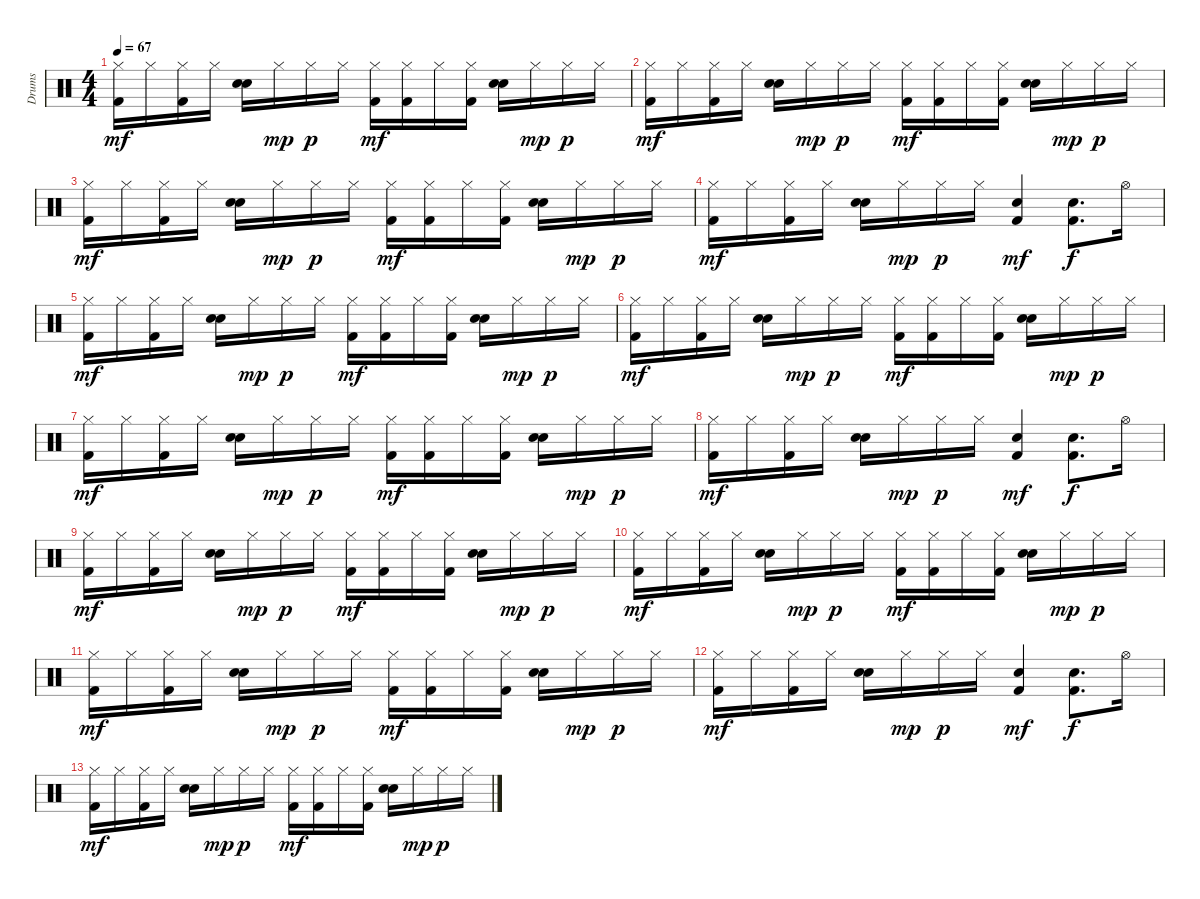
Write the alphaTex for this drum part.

\track ("Drums" "Drums") {instrument percussion}
\staff {score}
\articulation defaults
\ts (4 4)
\tempo 67
\clef neutral
\ks c
("Hi-Hat (closed)" "Kick (hit) 2").16{dy mf} "Hi-Hat (closed)".16 ("Hi-Hat (closed)" "Kick (hit) 2").16 "Hi-Hat (closed)".16 ("Hand Clap (hit)" "Snare (hit) 2").16 "Hi-Hat (closed)".16{dy mp} "Hi-Hat (closed)".16{dy p} "Hi-Hat (closed)".16 ("Hi-Hat (closed)" "Kick (hit) 2").16{dy mf} ("Hi-Hat (closed)" "Kick (hit) 2").16 "Hi-Hat (closed)".16 ("Hi-Hat (closed)" "Kick (hit) 2").16 ("Hand Clap (hit)" "Snare (hit) 2").16 "Hi-Hat (closed)".16{dy mp} "Hi-Hat (closed)".16{dy p} "Hi-Hat (closed)".16 |
("Hi-Hat (closed)" "Kick (hit) 2").16{dy mf} "Hi-Hat (closed)".16 ("Hi-Hat (closed)" "Kick (hit) 2").16 "Hi-Hat (closed)".16 ("Hand Clap (hit)" "Snare (hit) 2").16 "Hi-Hat (closed)".16{dy mp} "Hi-Hat (closed)".16{dy p} "Hi-Hat (closed)".16 ("Hi-Hat (closed)" "Kick (hit) 2").16{dy mf} ("Hi-Hat (closed)" "Kick (hit) 2").16 "Hi-Hat (closed)".16 ("Hi-Hat (closed)" "Kick (hit) 2").16 ("Hand Clap (hit)" "Snare (hit) 2").16 "Hi-Hat (closed)".16{dy mp} "Hi-Hat (closed)".16{dy p} "Hi-Hat (closed)".16 |
("Hi-Hat (closed)" "Kick (hit) 2").16{dy mf} "Hi-Hat (closed)".16 ("Hi-Hat (closed)" "Kick (hit) 2").16 "Hi-Hat (closed)".16 ("Hand Clap (hit)" "Snare (hit) 2").16 "Hi-Hat (closed)".16{dy mp} "Hi-Hat (closed)".16{dy p} "Hi-Hat (closed)".16 ("Hi-Hat (closed)" "Kick (hit) 2").16{dy mf} ("Hi-Hat (closed)" "Kick (hit) 2").16 "Hi-Hat (closed)".16 ("Hi-Hat (closed)" "Kick (hit) 2").16 ("Hand Clap (hit)" "Snare (hit) 2").16 "Hi-Hat (closed)".16{dy mp} "Hi-Hat (closed)".16{dy p} "Hi-Hat (closed)".16 |
("Hi-Hat (closed)" "Kick (hit) 2").16{dy mf} "Hi-Hat (closed)".16 ("Hi-Hat (closed)" "Kick (hit) 2").16 "Hi-Hat (closed)".16 ("Hand Clap (hit)" "Snare (hit) 2").16 "Hi-Hat (closed)".16{dy mp} "Hi-Hat (closed)".16{dy p} "Hi-Hat (closed)".16 ("Snare (hit) 2" "Kick (hit) 2").4{dy mf} ("Snare (hit) 2" "Kick (hit) 2").8{d dy f} "Hi-Hat (open)".16 |
("Hi-Hat (closed)" "Kick (hit) 2").16{dy mf} "Hi-Hat (closed)".16 ("Hi-Hat (closed)" "Kick (hit) 2").16 "Hi-Hat (closed)".16 ("Hand Clap (hit)" "Snare (hit) 2").16 "Hi-Hat (closed)".16{dy mp} "Hi-Hat (closed)".16{dy p} "Hi-Hat (closed)".16 ("Hi-Hat (closed)" "Kick (hit) 2").16{dy mf} ("Hi-Hat (closed)" "Kick (hit) 2").16 "Hi-Hat (closed)".16 ("Hi-Hat (closed)" "Kick (hit) 2").16 ("Hand Clap (hit)" "Snare (hit) 2").16 "Hi-Hat (closed)".16{dy mp} "Hi-Hat (closed)".16{dy p} "Hi-Hat (closed)".16 |
("Hi-Hat (closed)" "Kick (hit) 2").16{dy mf} "Hi-Hat (closed)".16 ("Hi-Hat (closed)" "Kick (hit) 2").16 "Hi-Hat (closed)".16 ("Hand Clap (hit)" "Snare (hit) 2").16 "Hi-Hat (closed)".16{dy mp} "Hi-Hat (closed)".16{dy p} "Hi-Hat (closed)".16 ("Hi-Hat (closed)" "Kick (hit) 2").16{dy mf} ("Hi-Hat (closed)" "Kick (hit) 2").16 "Hi-Hat (closed)".16 ("Hi-Hat (closed)" "Kick (hit) 2").16 ("Hand Clap (hit)" "Snare (hit) 2").16 "Hi-Hat (closed)".16{dy mp} "Hi-Hat (closed)".16{dy p} "Hi-Hat (closed)".16 |
("Hi-Hat (closed)" "Kick (hit) 2").16{dy mf} "Hi-Hat (closed)".16 ("Hi-Hat (closed)" "Kick (hit) 2").16 "Hi-Hat (closed)".16 ("Hand Clap (hit)" "Snare (hit) 2").16 "Hi-Hat (closed)".16{dy mp} "Hi-Hat (closed)".16{dy p} "Hi-Hat (closed)".16 ("Hi-Hat (closed)" "Kick (hit) 2").16{dy mf} ("Hi-Hat (closed)" "Kick (hit) 2").16 "Hi-Hat (closed)".16 ("Hi-Hat (closed)" "Kick (hit) 2").16 ("Hand Clap (hit)" "Snare (hit) 2").16 "Hi-Hat (closed)".16{dy mp} "Hi-Hat (closed)".16{dy p} "Hi-Hat (closed)".16 |
("Hi-Hat (closed)" "Kick (hit) 2").16{dy mf} "Hi-Hat (closed)".16 ("Hi-Hat (closed)" "Kick (hit) 2").16 "Hi-Hat (closed)".16 ("Hand Clap (hit)" "Snare (hit) 2").16 "Hi-Hat (closed)".16{dy mp} "Hi-Hat (closed)".16{dy p} "Hi-Hat (closed)".16 ("Snare (hit) 2" "Kick (hit) 2").4{dy mf} ("Snare (hit) 2" "Kick (hit) 2").8{d dy f} "Hi-Hat (open)".16 |
("Hi-Hat (closed)" "Kick (hit) 2").16{dy mf} "Hi-Hat (closed)".16 ("Hi-Hat (closed)" "Kick (hit) 2").16 "Hi-Hat (closed)".16 ("Hand Clap (hit)" "Snare (hit) 2").16 "Hi-Hat (closed)".16{dy mp} "Hi-Hat (closed)".16{dy p} "Hi-Hat (closed)".16 ("Hi-Hat (closed)" "Kick (hit) 2").16{dy mf} ("Hi-Hat (closed)" "Kick (hit) 2").16 "Hi-Hat (closed)".16 ("Hi-Hat (closed)" "Kick (hit) 2").16 ("Hand Clap (hit)" "Snare (hit) 2").16 "Hi-Hat (closed)".16{dy mp} "Hi-Hat (closed)".16{dy p} "Hi-Hat (closed)".16 |
("Hi-Hat (closed)" "Kick (hit) 2").16{dy mf volume 0} "Hi-Hat (closed)".16 ("Hi-Hat (closed)" "Kick (hit) 2").16 "Hi-Hat (closed)".16 ("Hand Clap (hit)" "Snare (hit) 2").16 "Hi-Hat (closed)".16{dy mp} "Hi-Hat (closed)".16{dy p} "Hi-Hat (closed)".16 ("Hi-Hat (closed)" "Kick (hit) 2").16{dy mf} ("Hi-Hat (closed)" "Kick (hit) 2").16 "Hi-Hat (closed)".16 ("Hi-Hat (closed)" "Kick (hit) 2").16 ("Hand Clap (hit)" "Snare (hit) 2").16 "Hi-Hat (closed)".16{dy mp} "Hi-Hat (closed)".16{dy p} "Hi-Hat (closed)".16 |
("Hi-Hat (closed)" "Kick (hit) 2").16{dy mf} "Hi-Hat (closed)".16 ("Hi-Hat (closed)" "Kick (hit) 2").16 "Hi-Hat (closed)".16 ("Hand Clap (hit)" "Snare (hit) 2").16 "Hi-Hat (closed)".16{dy mp} "Hi-Hat (closed)".16{dy p} "Hi-Hat (closed)".16 ("Hi-Hat (closed)" "Kick (hit) 2").16{dy mf} ("Hi-Hat (closed)" "Kick (hit) 2").16 "Hi-Hat (closed)".16 ("Hi-Hat (closed)" "Kick (hit) 2").16 ("Hand Clap (hit)" "Snare (hit) 2").16 "Hi-Hat (closed)".16{dy mp} "Hi-Hat (closed)".16{dy p} "Hi-Hat (closed)".16 |
("Hi-Hat (closed)" "Kick (hit) 2").16{dy mf} "Hi-Hat (closed)".16 ("Hi-Hat (closed)" "Kick (hit) 2").16 "Hi-Hat (closed)".16 ("Hand Clap (hit)" "Snare (hit) 2").16 "Hi-Hat (closed)".16{dy mp} "Hi-Hat (closed)".16{dy p} "Hi-Hat (closed)".16 ("Snare (hit) 2" "Kick (hit) 2").4{dy mf} ("Snare (hit) 2" "Kick (hit) 2").8{d dy f} "Hi-Hat (open)".16 |
("Hi-Hat (closed)" "Kick (hit) 2").16{dy mf} "Hi-Hat (closed)".16 ("Hi-Hat (closed)" "Kick (hit) 2").16 "Hi-Hat (closed)".16 ("Hand Clap (hit)" "Snare (hit) 2").16 "Hi-Hat (closed)".16{dy mp} "Hi-Hat (closed)".16{dy p} "Hi-Hat (closed)".16 ("Hi-Hat (closed)" "Kick (hit) 2").16{dy mf} ("Hi-Hat (closed)" "Kick (hit) 2").16 "Hi-Hat (closed)".16 ("Hi-Hat (closed)" "Kick (hit) 2").16 ("Hand Clap (hit)" "Snare (hit) 2").16 "Hi-Hat (closed)".16{dy mp} "Hi-Hat (closed)".16{dy p} "Hi-Hat (closed)".16
